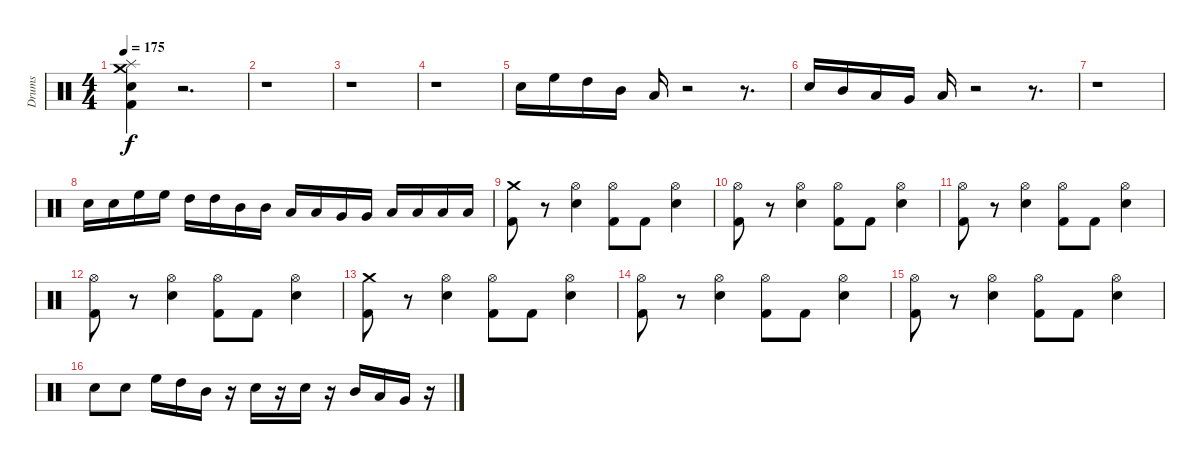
\track ("Drums" "Drums") {instrument percussion}
\staff {score}
\articulation defaults
\ts (4 4)
\tempo 175
\clef neutral
\ks c
("Splash (hit)" "Crash medium (hit)" "Electric Snare (hit)" "Kick (hit) 2").4{dy f} r.2{d} |
r.1 |
r.1 |
r.1 |
"Electric Snare (hit)".16 "High Floor Tom (hit)".16 "High Tom (hit)".16 "Mid Tom (hit)".16 "Low Tom (hit)".16 r.2 r.8{d} |
"Electric Snare (hit)".16 "Mid Tom (hit)".16 "Low Tom (hit)".16 "Very Low Tom (hit)".16 "Low Floor Tom (hit)".16 r.2 r.8{d} |
r.1 |
"Electric Snare (hit)".16 "Electric Snare (hit)".16 "High Floor Tom (hit)".16 "High Floor Tom (hit)".16 "High Tom (hit)".16 "High Tom (hit)".16 "Mid Tom (hit)".16 "Mid Tom (hit)".16 "Low Tom (hit)".16 "Low Tom (hit)".16 "Very Low Tom (hit)".16 "Very Low Tom (hit)".16 "Low Floor Tom (hit)".16 "Low Floor Tom (hit)".16 "Low Floor Tom (hit)".16 "Low Floor Tom (hit)".16 |
("Kick (hit) 2" "Crash medium (hit)").8 r.8 ("Hi-Hat (open)" "Electric Snare (hit)").4 ("Hi-Hat (open)" "Kick (hit) 2").8 "Kick (hit) 2".8 ("Hi-Hat (open)" "Electric Snare (hit)").4 |
("Hi-Hat (open)" "Kick (hit) 2").8 r.8 ("Hi-Hat (open)" "Electric Snare (hit)").4 ("Hi-Hat (open)" "Kick (hit) 2").8 "Kick (hit) 2".8 ("Hi-Hat (open)" "Electric Snare (hit)").4 |
("Hi-Hat (open)" "Kick (hit) 2").8 r.8 ("Hi-Hat (open)" "Electric Snare (hit)").4 ("Hi-Hat (open)" "Kick (hit) 2").8 "Kick (hit) 2".8 ("Hi-Hat (open)" "Electric Snare (hit)").4 |
("Hi-Hat (open)" "Kick (hit) 2").8 r.8 ("Hi-Hat (open)" "Electric Snare (hit)").4 ("Hi-Hat (open)" "Kick (hit) 2").8 "Kick (hit) 2".8 ("Hi-Hat (open)" "Electric Snare (hit)").4 |
("Kick (hit) 2" "Crash medium (hit)").8 r.8 ("Hi-Hat (open)" "Electric Snare (hit)").4 ("Hi-Hat (open)" "Kick (hit) 2").8 "Kick (hit) 2".8 ("Hi-Hat (open)" "Electric Snare (hit)").4 |
("Hi-Hat (open)" "Kick (hit) 2").8 r.8 ("Hi-Hat (open)" "Electric Snare (hit)").4 ("Hi-Hat (open)" "Kick (hit) 2").8 "Kick (hit) 2".8 ("Hi-Hat (open)" "Electric Snare (hit)").4 |
("Hi-Hat (open)" "Kick (hit) 2").8 r.8 ("Hi-Hat (open)" "Electric Snare (hit)").4 ("Hi-Hat (open)" "Kick (hit) 2").8 "Kick (hit) 2".8 ("Electric Snare (hit)" "Hi-Hat (open)").4 |
"Electric Snare (hit)".8 "Electric Snare (hit)".8 "High Floor Tom (hit)".16 "High Tom (hit)".16 "Mid Tom (hit)".16 r.16 "Electric Snare (hit)".16 r.16 "Electric Snare (hit)".16 r.16 "Mid Tom (hit)".16 "Low Tom (hit)".16 "Very Low Tom (hit)".16 r.16
